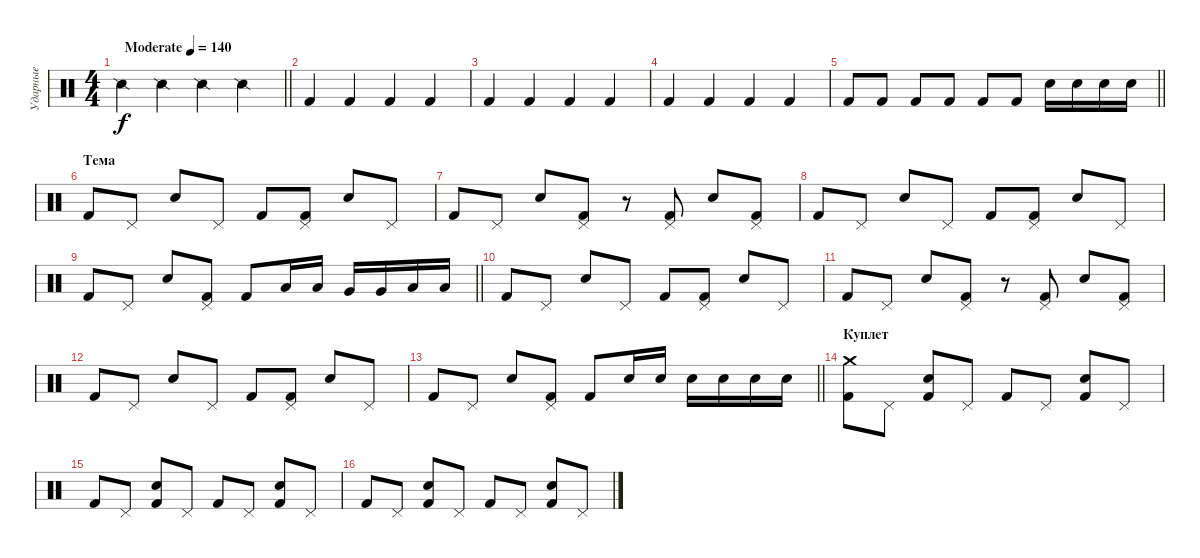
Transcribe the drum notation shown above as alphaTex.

\track ("Ударные" "Ударные") {instrument percussion}
\staff {score}
\articulation defaults
\ts (4 4)
\tempo (140 "Moderate")
\clef neutral
\barLineRight lightlight
\ks c "Snare (side stick) 2".4{dy f} "Snare (side stick) 2".4 "Snare (side stick) 2".4 "Snare (side stick) 2".4
|
"Kick (hit) 2".4 "Kick (hit) 2".4 "Kick (hit) 2".4 "Kick (hit) 2".4 |
"Kick (hit) 2".4 "Kick (hit) 2".4 "Kick (hit) 2".4 "Kick (hit) 2".4 |
"Kick (hit) 2".4 "Kick (hit) 2".4 "Kick (hit) 2".4 "Kick (hit) 2".4 |
\barLineRight lightlight "Kick (hit) 2".8 "Kick (hit) 2".8 "Kick (hit) 2".8 "Kick (hit) 2".8 "Kick (hit) 2".8 "Kick (hit) 2".8 "Electric Snare (hit)".16 "Electric Snare (hit)".16 "Electric Snare (hit)".16 "Electric Snare (hit)".16
|
\section ("" "Тема")
"Kick (hit) 2".8 "Pedal Hi-Hat (hit)".8 "Electric Snare (hit)".8 "Pedal Hi-Hat (hit)".8 "Kick (hit) 2".8 ("Pedal Hi-Hat (hit)" "Kick (hit) 2").8 "Electric Snare (hit)".8 "Pedal Hi-Hat (hit)".8 |
"Kick (hit) 2".8 "Pedal Hi-Hat (hit)".8 "Electric Snare (hit)".8 ("Pedal Hi-Hat (hit)" "Kick (hit) 2").8 r.8 ("Pedal Hi-Hat (hit)" "Kick (hit) 2").8 "Electric Snare (hit)".8 ("Pedal Hi-Hat (hit)" "Kick (hit) 2").8 |
"Kick (hit) 2".8 "Pedal Hi-Hat (hit)".8 "Electric Snare (hit)".8 "Pedal Hi-Hat (hit)".8 "Kick (hit) 2".8 ("Pedal Hi-Hat (hit)" "Kick (hit) 2").8 "Electric Snare (hit)".8 "Pedal Hi-Hat (hit)".8 |
\barLineRight lightlight "Kick (hit) 2".8 "Pedal Hi-Hat (hit)".8 "Electric Snare (hit)".8
("Pedal Hi-Hat (hit)" "Kick (hit) 2").8 "Kick (hit) 2".8 "Low Tom (hit)".16 "Low Tom (hit)".16 "Very Low Tom (hit)".16 "Very Low Tom (hit)".16 "Low Floor Tom (hit)".16 "Low Floor Tom (hit)".16 |
"Kick (hit) 2".8 "Pedal Hi-Hat (hit)".8 "Electric Snare (hit)".8 "Pedal Hi-Hat (hit)".8 "Kick (hit) 2".8 ("Pedal Hi-Hat (hit)" "Kick (hit) 2").8 "Electric Snare (hit)".8 "Pedal Hi-Hat (hit)".8 |
"Kick (hit) 2".8 "Pedal Hi-Hat (hit)".8 "Electric Snare (hit)".8 ("Pedal Hi-Hat (hit)" "Kick (hit) 2").8 r.8 ("Pedal Hi-Hat (hit)" "Kick (hit) 2").8 "Electric Snare (hit)".8 ("Pedal Hi-Hat (hit)" "Kick (hit) 2").8 |
"Kick (hit) 2".8 "Pedal Hi-Hat (hit)".8 "Electric Snare (hit)".8 "Pedal Hi-Hat (hit)".8 "Kick (hit) 2".8 ("Pedal Hi-Hat (hit)" "Kick (hit) 2").8 "Electric Snare (hit)".8 "Pedal Hi-Hat (hit)".8 |
\barLineRight lightlight "Kick (hit) 2".8 "Pedal Hi-Hat (hit)".8 "Electric Snare (hit)".8
("Pedal Hi-Hat (hit)" "Kick (hit) 2").8 "Kick (hit) 2".8 "Electric Snare (hit)".16 "Electric Snare (hit)".16 "Electric Snare (hit)".16 "Electric Snare (hit)".16 "Electric Snare (hit)".16 "Electric Snare (hit)".16 |
\section ("" "Куплет")
("Kick (hit) 2" "Crash medium (hit)").8 "Pedal Hi-Hat (hit)".8 ("Electric Snare (hit)" "Kick (hit) 2").8 "Pedal Hi-Hat (hit)".8 "Kick (hit) 2".8 "Pedal Hi-Hat (hit)".8 ("Electric Snare (hit)" "Kick (hit) 2").8 "Pedal Hi-Hat (hit)".8 |
"Kick (hit) 2".8 "Pedal Hi-Hat (hit)".8 ("Electric Snare (hit)" "Kick (hit) 2").8 "Pedal Hi-Hat (hit)".8 "Kick (hit) 2".8 "Pedal Hi-Hat (hit)".8 ("Electric Snare (hit)" "Kick (hit) 2").8 "Pedal Hi-Hat (hit)".8 |
"Kick (hit) 2".8 "Pedal Hi-Hat (hit)".8 ("Electric Snare (hit)" "Kick (hit) 2").8 "Pedal Hi-Hat (hit)".8 "Kick (hit) 2".8 "Pedal Hi-Hat (hit)".8 ("Electric Snare (hit)" "Kick (hit) 2").8 "Pedal Hi-Hat (hit)".8
